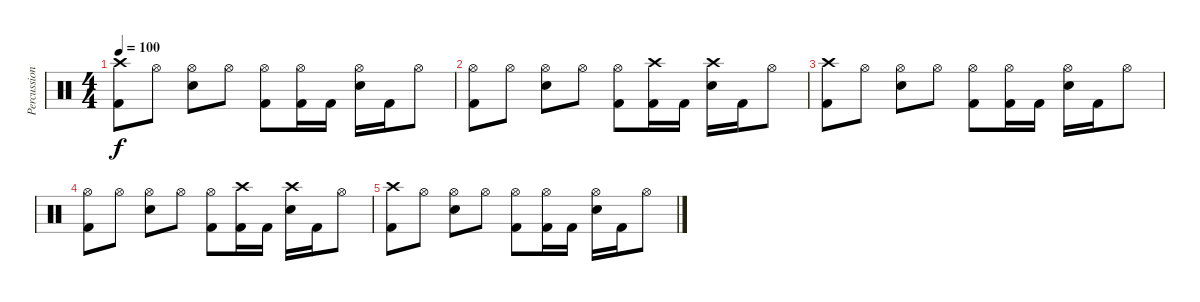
\track ("Percussion" "Percussion") {instrument percussion}
\staff {score}
\articulation defaults
\ts (4 4)
\tempo 100
\clef neutral
\ks c
("Crash high (hit)" "Kick (hit) 2").8{dy f} "Hi-Hat (open)".8 ("Hi-Hat (open)" "Electric Snare (hit)").8 "Hi-Hat (open)".8 ("Hi-Hat (open)" "Kick (hit) 2").8 ("Hi-Hat (open)" "Kick (hit) 2").16 "Kick (hit) 2".16 ("Hi-Hat (open)" "Electric Snare (hit)").16 "Kick (hit) 2".16 "Hi-Hat (open)".8 |
("Hi-Hat (open)" "Kick (hit) 2").8 "Hi-Hat (open)".8 ("Hi-Hat (open)" "Electric Snare (hit)").8 "Hi-Hat (open)".8 ("Hi-Hat (open)" "Kick (hit) 2").8 ("Crash high (hit)" "Kick (hit) 2").16 "Kick (hit) 2".16 ("Crash high (hit)" "Electric Snare (hit)").16 "Kick (hit) 2".16 "Hi-Hat (open)".8 |
("Crash high (hit)" "Kick (hit) 2").8 "Hi-Hat (open)".8 ("Hi-Hat (open)" "Electric Snare (hit)").8 "Hi-Hat (open)".8 ("Hi-Hat (open)" "Kick (hit) 2").8 ("Hi-Hat (open)" "Kick (hit) 2").16 "Kick (hit) 2".16 ("Hi-Hat (open)" "Electric Snare (hit)").16 "Kick (hit) 2".16 "Hi-Hat (open)".8 |
("Hi-Hat (open)" "Kick (hit) 2").8 "Hi-Hat (open)".8 ("Hi-Hat (open)" "Electric Snare (hit)").8 "Hi-Hat (open)".8 ("Hi-Hat (open)" "Kick (hit) 2").8 ("Crash high (hit)" "Kick (hit) 2").16 "Kick (hit) 2".16 ("Crash high (hit)" "Electric Snare (hit)").16 "Kick (hit) 2".16 "Hi-Hat (open)".8 |
("Crash high (hit)" "Kick (hit) 2").8 "Hi-Hat (open)".8 ("Hi-Hat (open)" "Electric Snare (hit)").8 "Hi-Hat (open)".8 ("Hi-Hat (open)" "Kick (hit) 2").8 ("Hi-Hat (open)" "Kick (hit) 2").16 "Kick (hit) 2".16 ("Hi-Hat (open)" "Electric Snare (hit)").16 "Kick (hit) 2".16 "Hi-Hat (open)".8
